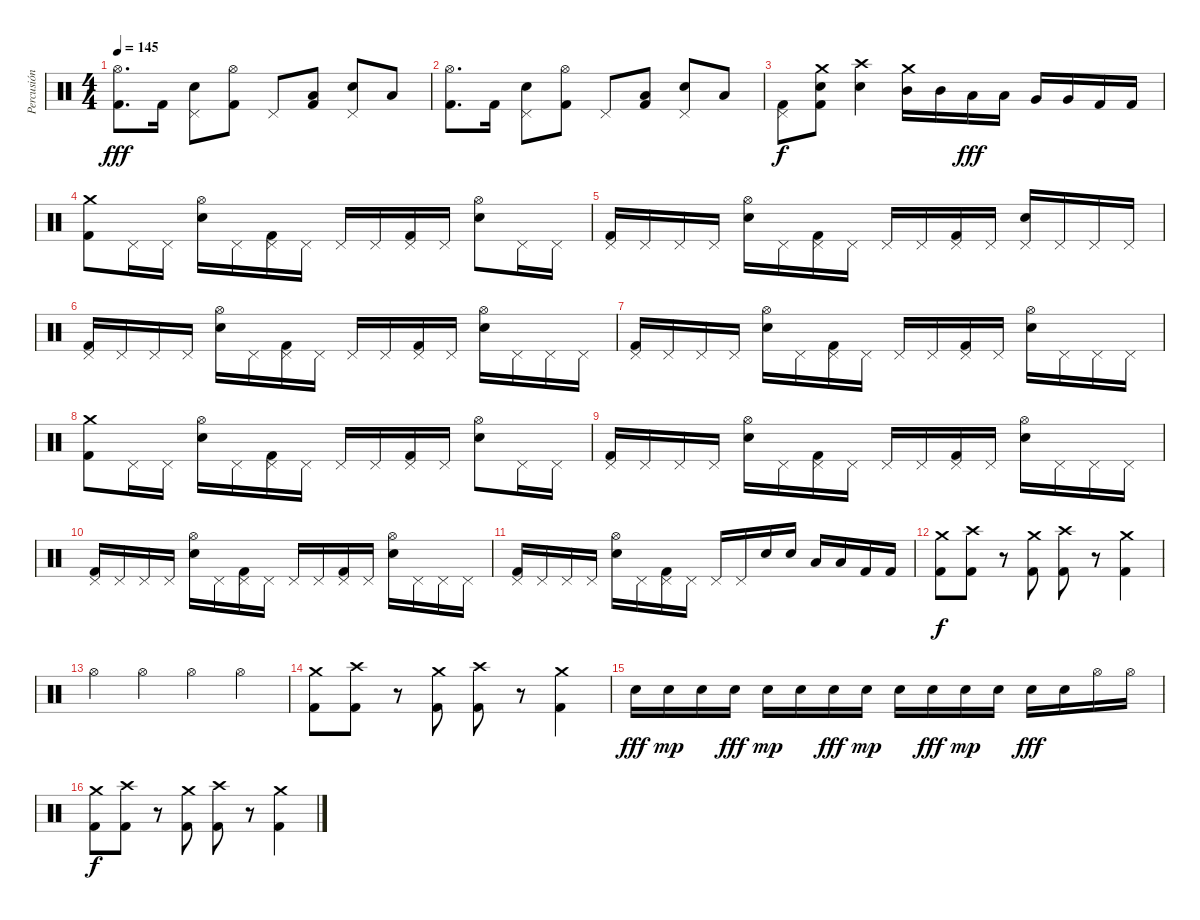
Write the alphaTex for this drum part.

\track ("Percusión" "Percusión") {instrument percussion}
\staff {score}
\articulation defaults
\ts (4 4)
\tempo 145
\clef neutral
\ks c
("Hi-Hat (open)" "Kick (hit) 2").8{d dy fff} "Kick (hit) 2".16 ("Pedal Hi-Hat (hit)" "Electric Snare (hit)").8 ("Hi-Hat (open)" "Kick (hit) 2").8 "Pedal Hi-Hat (hit)".8 ("Low Tom (hit)" "Kick (hit) 2").8 ("Pedal Hi-Hat (hit)" "Electric Snare (hit)").8 "Low Tom (hit)".8 |
("Hi-Hat (open)" "Kick (hit) 2").8{d} "Kick (hit) 2".16 ("Pedal Hi-Hat (hit)" "Electric Snare (hit)").8 ("Hi-Hat (open)" "Kick (hit) 2").8 "Pedal Hi-Hat (hit)".8 ("Low Tom (hit)" "Kick (hit) 2").8 ("Pedal Hi-Hat (hit)" "Electric Snare (hit)").8 "Low Tom (hit)".8 |
("Pedal Hi-Hat (hit)" "Kick (hit) 2").8{dy f} ("Crash medium (hit)" "Electric Snare (hit)" "Kick (hit) 2").8 ("Crash high (hit)" "Electric Snare (hit)").4 ("Crash medium (hit)" "Mid Tom (hit)").16 "Mid Tom (hit)".16 "Low Tom (hit)".16{dy fff} "Low Tom (hit)".16 "Very Low Tom (hit)".16 "Very Low Tom (hit)".16 "Kick (hit) 2".16 "Kick (hit) 2".16 |
("Crash medium (hit)" "Kick (hit) 2").8 "Pedal Hi-Hat (hit)".16 "Pedal Hi-Hat (hit)".16 ("Hi-Hat (open)" "Electric Snare (hit)").16 "Pedal Hi-Hat (hit)".16 ("Pedal Hi-Hat (hit)" "Kick (hit) 2").16 "Pedal Hi-Hat (hit)".16 "Pedal Hi-Hat (hit)".16 "Pedal Hi-Hat (hit)".16 ("Pedal Hi-Hat (hit)" "Kick (hit) 2").16 "Pedal Hi-Hat (hit)".16 ("Hi-Hat (open)" "Electric Snare (hit)").8 "Pedal Hi-Hat (hit)".16 "Pedal Hi-Hat (hit)".16 |
("Pedal Hi-Hat (hit)" "Kick (hit) 2").16 "Pedal Hi-Hat (hit)".16 "Pedal Hi-Hat (hit)".16 "Pedal Hi-Hat (hit)".16 ("Hi-Hat (open)" "Electric Snare (hit)").16 "Pedal Hi-Hat (hit)".16 ("Pedal Hi-Hat (hit)" "Kick (hit) 2").16 "Pedal Hi-Hat (hit)".16 "Pedal Hi-Hat (hit)".16 "Pedal Hi-Hat (hit)".16 ("Pedal Hi-Hat (hit)" "Kick (hit) 2").16 "Pedal Hi-Hat (hit)".16 ("Pedal Hi-Hat (hit)" "Electric Snare (hit)").16 "Pedal Hi-Hat (hit)".16 "Pedal Hi-Hat (hit)".16 "Pedal Hi-Hat (hit)".16 |
("Pedal Hi-Hat (hit)" "Kick (hit) 2").16 "Pedal Hi-Hat (hit)".16 "Pedal Hi-Hat (hit)".16 "Pedal Hi-Hat (hit)".16 ("Hi-Hat (open)" "Electric Snare (hit)").16 "Pedal Hi-Hat (hit)".16 ("Pedal Hi-Hat (hit)" "Kick (hit) 2").16 "Pedal Hi-Hat (hit)".16 "Pedal Hi-Hat (hit)".16 "Pedal Hi-Hat (hit)".16 ("Pedal Hi-Hat (hit)" "Kick (hit) 2").16 "Pedal Hi-Hat (hit)".16 ("Hi-Hat (open)" "Electric Snare (hit)").16 "Pedal Hi-Hat (hit)".16 "Pedal Hi-Hat (hit)".16 "Pedal Hi-Hat (hit)".16 |
("Pedal Hi-Hat (hit)" "Kick (hit) 2").16 "Pedal Hi-Hat (hit)".16 "Pedal Hi-Hat (hit)".16 "Pedal Hi-Hat (hit)".16 ("Hi-Hat (open)" "Electric Snare (hit)").16 "Pedal Hi-Hat (hit)".16 ("Pedal Hi-Hat (hit)" "Kick (hit) 2").16 "Pedal Hi-Hat (hit)".16 "Pedal Hi-Hat (hit)".16 "Pedal Hi-Hat (hit)".16 ("Pedal Hi-Hat (hit)" "Kick (hit) 2").16 "Pedal Hi-Hat (hit)".16 ("Hi-Hat (open)" "Electric Snare (hit)").16 "Pedal Hi-Hat (hit)".16 "Pedal Hi-Hat (hit)".16 "Pedal Hi-Hat (hit)".16 |
("Crash medium (hit)" "Kick (hit) 2").8 "Pedal Hi-Hat (hit)".16 "Pedal Hi-Hat (hit)".16 ("Hi-Hat (open)" "Electric Snare (hit)").16 "Pedal Hi-Hat (hit)".16 ("Pedal Hi-Hat (hit)" "Kick (hit) 2").16 "Pedal Hi-Hat (hit)".16 "Pedal Hi-Hat (hit)".16 "Pedal Hi-Hat (hit)".16 ("Pedal Hi-Hat (hit)" "Kick (hit) 2").16 "Pedal Hi-Hat (hit)".16 ("Hi-Hat (open)" "Electric Snare (hit)").8 "Pedal Hi-Hat (hit)".16 "Pedal Hi-Hat (hit)".16 |
("Pedal Hi-Hat (hit)" "Kick (hit) 2").16 "Pedal Hi-Hat (hit)".16 "Pedal Hi-Hat (hit)".16 "Pedal Hi-Hat (hit)".16 ("Hi-Hat (open)" "Electric Snare (hit)").16 "Pedal Hi-Hat (hit)".16 ("Pedal Hi-Hat (hit)" "Kick (hit) 2").16 "Pedal Hi-Hat (hit)".16 "Pedal Hi-Hat (hit)".16 "Pedal Hi-Hat (hit)".16 ("Pedal Hi-Hat (hit)" "Kick (hit) 2").16 "Pedal Hi-Hat (hit)".16 ("Hi-Hat (open)" "Electric Snare (hit)").16 "Pedal Hi-Hat (hit)".16 "Pedal Hi-Hat (hit)".16 "Pedal Hi-Hat (hit)".16 |
("Pedal Hi-Hat (hit)" "Kick (hit) 2").16 "Pedal Hi-Hat (hit)".16 "Pedal Hi-Hat (hit)".16 "Pedal Hi-Hat (hit)".16 ("Hi-Hat (open)" "Electric Snare (hit)").16 "Pedal Hi-Hat (hit)".16 ("Pedal Hi-Hat (hit)" "Kick (hit) 2").16 "Pedal Hi-Hat (hit)".16 "Pedal Hi-Hat (hit)".16 "Pedal Hi-Hat (hit)".16 ("Pedal Hi-Hat (hit)" "Kick (hit) 2").16 "Pedal Hi-Hat (hit)".16 ("Hi-Hat (open)" "Electric Snare (hit)").16 "Pedal Hi-Hat (hit)".16 "Pedal Hi-Hat (hit)".16 "Pedal Hi-Hat (hit)".16 |
("Pedal Hi-Hat (hit)" "Kick (hit) 2").16 "Pedal Hi-Hat (hit)".16 "Pedal Hi-Hat (hit)".16 "Pedal Hi-Hat (hit)".16 ("Hi-Hat (open)" "Electric Snare (hit)").16 "Pedal Hi-Hat (hit)".16 ("Pedal Hi-Hat (hit)" "Kick (hit) 2").16 "Pedal Hi-Hat (hit)".16 "Pedal Hi-Hat (hit)".16 "Pedal Hi-Hat (hit)".16 "Electric Snare (hit)".16 "Electric Snare (hit)".16 "Low Tom (hit)".16 "Low Tom (hit)".16 "Kick (hit) 2".16 "Kick (hit) 2".16 |
("Crash medium (hit)" "Kick (hit) 2").8{dy f} ("Crash high (hit)" "Kick (hit) 2").8 r.8 ("Crash medium (hit)" "Kick (hit) 2").8 ("Crash high (hit)" "Kick (hit) 2").8 r.8 ("Crash medium (hit)" "Kick (hit) 2").4 |
"Hi-Hat (open)".4 "Hi-Hat (open)".4 "Hi-Hat (open)".4 "Hi-Hat (open)".4 |
("Crash medium (hit)" "Kick (hit) 2").8 ("Crash high (hit)" "Kick (hit) 2").8 r.8 ("Crash medium (hit)" "Kick (hit) 2").8 ("Crash high (hit)" "Kick (hit) 2").8 r.8 ("Crash medium (hit)" "Kick (hit) 2").4 |
"Electric Snare (hit)".16{dy fff} "Electric Snare (hit)".16{dy mp} "Electric Snare (hit)".16 "Electric Snare (hit)".16{dy fff} "Electric Snare (hit)".16{dy mp} "Electric Snare (hit)".16 "Electric Snare (hit)".16{dy fff} "Electric Snare (hit)".16{dy mp} "Electric Snare (hit)".16 "Electric Snare (hit)".16{dy fff} "Electric Snare (hit)".16{dy mp} "Electric Snare (hit)".16 "Electric Snare (hit)".16{dy fff} "Electric Snare (hit)".16 "Hi-Hat (open)".16 "Hi-Hat (open)".16 |
("Crash medium (hit)" "Kick (hit) 2").8{dy f} ("Crash high (hit)" "Kick (hit) 2").8 r.8 ("Crash medium (hit)" "Kick (hit) 2").8 ("Crash high (hit)" "Kick (hit) 2").8 r.8 ("Crash medium (hit)" "Kick (hit) 2").4
